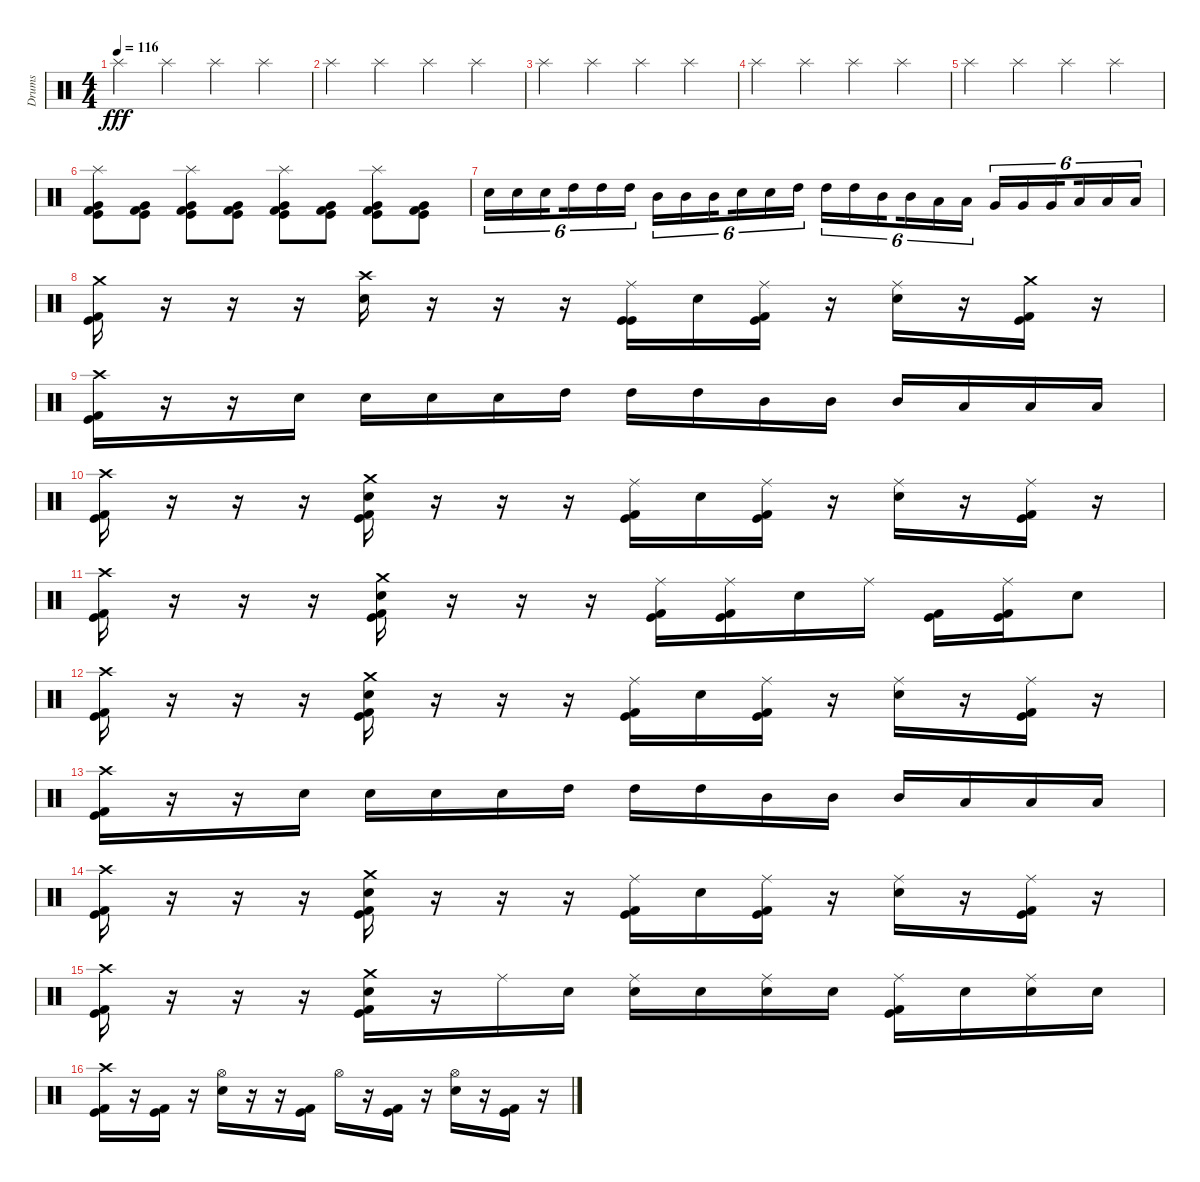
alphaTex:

\track ("Drums" "Drums") {instrument percussion}
\staff {score}
\articulation defaults
\ts (4 4)
\tempo 116
\clef neutral
\ks c "Splash (hit)".4{dy fff} "Splash (hit)".4 "Splash (hit)".4 "Splash (hit)".4
|
"Splash (hit)".4 "Splash (hit)".4 "Splash (hit)".4 "Splash (hit)".4 |
"Splash (hit)".4 "Splash (hit)".4 "Splash (hit)".4 "Splash (hit)".4 |
"Splash (hit)".4 "Splash (hit)".4 "Splash (hit)".4 "Splash (hit)".4 |
"Splash (hit)".4 "Splash (hit)".4 "Splash (hit)".4 "Splash (hit)".4 |
("Splash (hit)" "Very Low Tom (hit)" "Kick (hit)" "Kick (hit) 2").8 ("Very Low Tom (hit)" "Kick (hit)" "Kick (hit) 2").8 ("Splash (hit)" "Very Low Tom (hit)" "Kick (hit)" "Kick (hit) 2").8 ("Very Low Tom (hit)" "Kick (hit)" "Kick (hit) 2").8 ("Splash (hit)" "Very Low Tom (hit)" "Kick (hit)" "Kick (hit) 2").8 ("Very Low Tom (hit)" "Kick (hit)" "Kick (hit) 2").8 ("Splash (hit)" "Very Low Tom (hit)" "Kick (hit)" "Kick (hit) 2").8 ("Very Low Tom (hit)" "Kick (hit)" "Kick (hit) 2").8 |
"Snare (hit) 2".16{tu (6 4)} "Snare (hit) 2".16{tu (6 4)} "Snare (hit) 2".16{tu (6 4) beam splitsecondary} "High Tom (hit)".16{tu (6 4)} "High Tom (hit)".16{tu (6 4)} "High Tom (hit)".16{tu (6 4)} "Mid Tom (hit)".16{tu (6 4)} "Mid Tom (hit)".16{tu (6 4)} "Mid Tom (hit)".16{tu (6 4) beam splitsecondary} "Snare (hit) 2".16{tu (6 4)} "Snare (hit) 2".16{tu (6 4)} "High Tom (hit)".16{tu (6 4)} "High Tom (hit)".16{tu (6 4)} "High Tom (hit)".16{tu (6 4)} "Mid Tom (hit)".16{tu (6 4) beam splitsecondary} "Mid Tom (hit)".16{tu (6 4)} "Low Tom (hit)".16{tu (6 4)} "Low Tom (hit)".16{tu (6 4)} "Very Low Tom (hit)".16{tu (6 4)} "Very Low Tom (hit)".16{tu (6 4)} "Very Low Tom (hit)".16{tu (6 4) beam splitsecondary} "Low Floor Tom (hit)".16{tu (6 4)} "Low Floor Tom (hit)".16{tu (6 4)} "Low Floor Tom (hit)".16{tu (6 4)} |
("Crash medium (hit)" "Kick (hit)" "Kick (hit) 2").16 r.16 r.16 r.16 ("Crash high (hit)" "Snare (hit) 2").16 r.16 r.16 r.16 ("Ride (middle)" "Kick (hit)" "Kick (hit)").16 "Snare (hit) 2".16 ("Ride (middle)" "Kick (hit)" "Kick (hit) 2").16 r.16 ("Ride (middle)" "Snare (hit) 2").16 r.16 ("Crash medium (hit)" "Kick (hit)" "Kick (hit) 2").16 r.16 |
("Crash high (hit)" "Kick (hit)" "Kick (hit) 2").16 r.16 r.16 "Snare (hit) 2".16 "Snare (hit) 2".16 "Snare (hit) 2".16 "Snare (hit) 2".16 "High Tom (hit)".16 "High Tom (hit)".16 "High Tom (hit)".16 "Mid Tom (hit)".16 "Mid Tom (hit)".16 "Mid Tom (hit)".16 "Low Tom (hit)".16 "Low Tom (hit)".16 "Low Tom (hit)".16 |
("Crash high (hit)" "Kick (hit)" "Kick (hit) 2").16 r.16 r.16 r.16 ("Crash medium (hit)" "Snare (hit) 2" "Kick (hit)" "Kick (hit) 2").16 r.16 r.16 r.16 ("Ride (middle)" "Kick (hit)" "Kick (hit) 2").16 "Snare (hit) 2".16 ("Ride (middle)" "Kick (hit)" "Kick (hit) 2").16 r.16 ("Ride (middle)" "Snare (hit) 2").16 r.16 ("Ride (middle)" "Kick (hit)" "Kick (hit) 2").16 r.16 |
("Crash high (hit)" "Kick (hit)" "Kick (hit) 2").16 r.16 r.16 r.16 ("Crash medium (hit)" "Snare (hit) 2" "Kick (hit)" "Kick (hit) 2").16 r.16 r.16 r.16 ("Ride (middle)" "Kick (hit)" "Kick (hit) 2").16 ("Ride (middle)" "Kick (hit)" "Kick (hit) 2").16 "Snare (hit) 2".16 "Ride (middle)".16 ("Kick (hit)" "Kick (hit) 2").16 ("Ride (middle)" "Kick (hit)" "Kick (hit) 2").16 "Snare (hit) 2".8 |
("Crash high (hit)" "Kick (hit)" "Kick (hit) 2").16 r.16 r.16 r.16 ("Crash medium (hit)" "Snare (hit) 2" "Kick (hit)" "Kick (hit) 2").16 r.16 r.16 r.16 ("Ride (middle)" "Kick (hit)" "Kick (hit) 2").16 "Snare (hit) 2".16 ("Ride (middle)" "Kick (hit)" "Kick (hit) 2").16 r.16 ("Ride (middle)" "Snare (hit) 2").16 r.16 ("Ride (middle)" "Kick (hit)" "Kick (hit) 2").16 r.16 |
("Crash high (hit)" "Kick (hit)" "Kick (hit) 2").16 r.16 r.16 "Snare (hit) 2".16 "Snare (hit) 2".16 "Snare (hit) 2".16 "Snare (hit) 2".16 "High Tom (hit)".16 "High Tom (hit)".16 "High Tom (hit)".16 "Mid Tom (hit)".16 "Mid Tom (hit)".16 "Mid Tom (hit)".16 "Low Tom (hit)".16 "Low Tom (hit)".16 "Low Tom (hit)".16 |
("Crash high (hit)" "Kick (hit)" "Kick (hit) 2").16 r.16 r.16 r.16 ("Crash medium (hit)" "Snare (hit) 2" "Kick (hit)" "Kick (hit) 2").16 r.16 r.16 r.16 ("Ride (middle)" "Kick (hit)" "Kick (hit) 2").16 "Snare (hit) 2".16 ("Ride (middle)" "Kick (hit)" "Kick (hit) 2").16 r.16 ("Ride (middle)" "Snare (hit) 2").16 r.16 ("Ride (middle)" "Kick (hit)" "Kick (hit) 2").16 r.16 |
("Crash high (hit)" "Kick (hit)" "Kick (hit) 2").16 r.16 r.16 r.16 ("Crash medium (hit)" "Snare (hit) 2" "Kick (hit)" "Kick (hit) 2").16 r.16 "Ride (middle)".16 "Snare (hit) 2".16 ("Ride (middle)" "Snare (hit) 2").16 "Snare (hit) 2".16 ("Ride (middle)" "Snare (hit) 2").16 "Snare (hit) 2".16 ("Ride (middle)" "Kick (hit)" "Kick (hit) 2").16 "Snare (hit) 2".16 ("Ride (middle)" "Snare (hit) 2").16 "Snare (hit) 2".16 |
("Crash high (hit)" "Kick (hit)" "Kick (hit) 2").16 r.16 ("Kick (hit)" "Kick (hit) 2").16 r.16 ("Hi-Hat (open)" "Snare (hit) 2").16 r.16 r.16 ("Kick (hit)" "Kick (hit) 2").16 "Hi-Hat (open)".16 r.16 ("Kick (hit)" "Kick (hit) 2").16 r.16 ("Hi-Hat (open)" "Snare (hit) 2").16 r.16 ("Kick (hit)" "Kick (hit) 2").16 r.16
